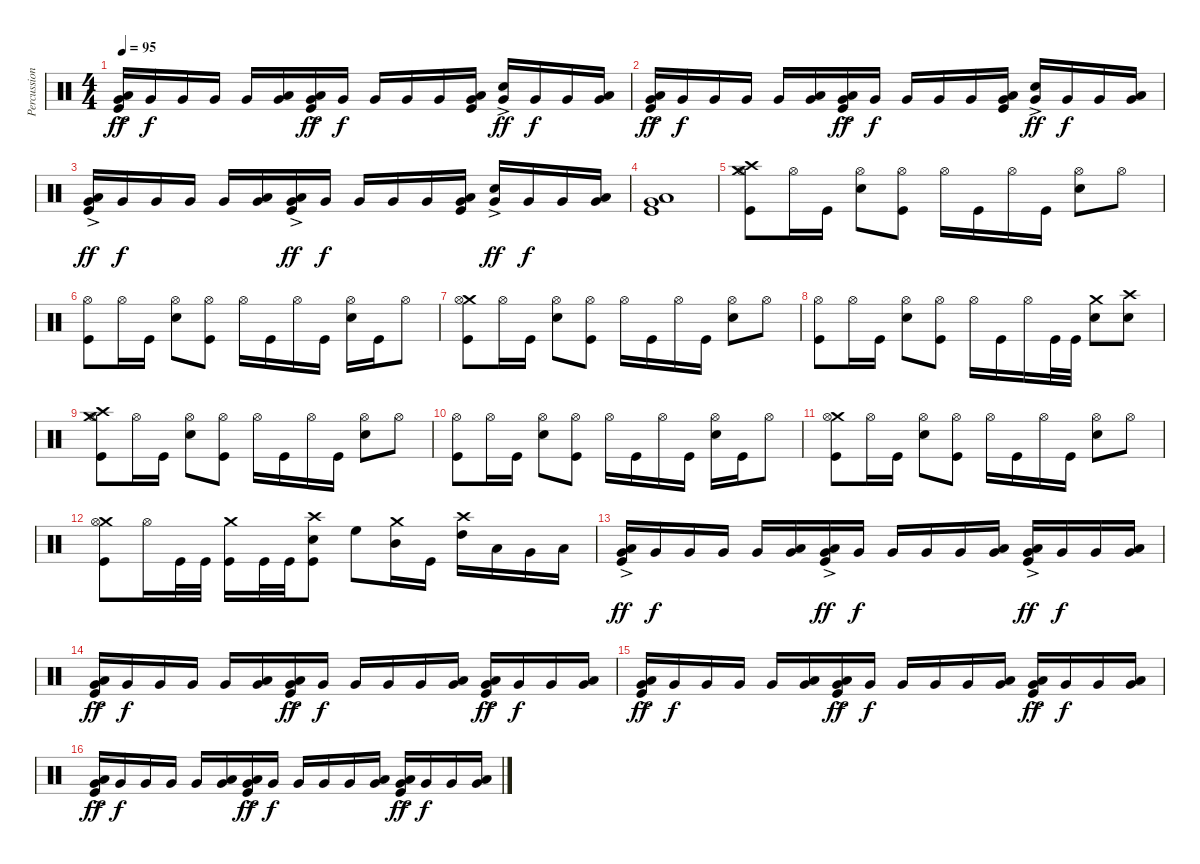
\track ("Percussion" "Percussion") {instrument percussion}
\staff {score}
\articulation defaults
\ts (4 4)
\tempo 95
\clef neutral
\ks c
("Low Floor Tom (hit)"{ac} "Very Low Tom (hit)" "Kick (hit)").16{dy ff} "Very Low Tom (hit)".16{dy f} "Very Low Tom (hit)".16 "Very Low Tom (hit)".16 "Very Low Tom (hit)".16 ("Low Floor Tom (hit)" "Very Low Tom (hit)").16 ("Low Floor Tom (hit)"{ac} "Very Low Tom (hit)" "Kick (hit)").16{dy ff} "Very Low Tom (hit)".16{dy f} "Very Low Tom (hit)".16 "Very Low Tom (hit)".16 "Very Low Tom (hit)".16 ("Low Floor Tom (hit)" "Very Low Tom (hit)" "Kick (hit)").16 ("Snare (hit) 2"{ac} "Very Low Tom (hit)").16{dy ff} "Very Low Tom (hit)".16{dy f} "Very Low Tom (hit)".16 ("Low Floor Tom (hit)" "Very Low Tom (hit)").16 |
("Low Floor Tom (hit)"{ac} "Very Low Tom (hit)" "Kick (hit)").16{dy ff} "Very Low Tom (hit)".16{dy f} "Very Low Tom (hit)".16 "Very Low Tom (hit)".16 "Very Low Tom (hit)".16 ("Low Floor Tom (hit)" "Very Low Tom (hit)").16 ("Low Floor Tom (hit)"{ac} "Very Low Tom (hit)" "Kick (hit)").16{dy ff} "Very Low Tom (hit)".16{dy f} "Very Low Tom (hit)".16 "Very Low Tom (hit)".16 "Very Low Tom (hit)".16 ("Low Floor Tom (hit)" "Very Low Tom (hit)" "Kick (hit)").16 ("Snare (hit) 2"{ac} "Very Low Tom (hit)").16{dy ff} "Very Low Tom (hit)".16{dy f} "Very Low Tom (hit)".16 ("Low Floor Tom (hit)" "Very Low Tom (hit)").16 |
("Low Floor Tom (hit)"{ac} "Very Low Tom (hit)" "Kick (hit)").16{dy ff} "Very Low Tom (hit)".16{dy f} "Very Low Tom (hit)".16 "Very Low Tom (hit)".16 "Very Low Tom (hit)".16 ("Low Floor Tom (hit)" "Very Low Tom (hit)").16 ("Low Floor Tom (hit)"{ac} "Very Low Tom (hit)" "Kick (hit)").16{dy ff} "Very Low Tom (hit)".16{dy f} "Very Low Tom (hit)".16 "Very Low Tom (hit)".16 "Very Low Tom (hit)".16 ("Low Floor Tom (hit)" "Very Low Tom (hit)" "Kick (hit)").16 ("Snare (hit) 2"{ac} "Very Low Tom (hit)").16{dy ff} "Very Low Tom (hit)".16{dy f} "Very Low Tom (hit)".16 ("Low Floor Tom (hit)" "Very Low Tom (hit)").16 |
("Low Floor Tom (hit)" "Very Low Tom (hit)" "Kick (hit)").1 |
("Crash high (hit)" "Crash medium (hit)" "Hi-Hat (open)" "Kick (hit)").8 "Hi-Hat (open)".16 "Kick (hit)".16 ("Hi-Hat (open)" "Snare (hit) 2").8 ("Hi-Hat (open)" "Kick (hit)").8 "Hi-Hat (open)".16 "Kick (hit)".16 "Hi-Hat (open)".16 "Kick (hit)".16 ("Hi-Hat (open)" "Snare (hit) 2").8 "Hi-Hat (open)".8 |
("Hi-Hat (open)" "Kick (hit)").8 "Hi-Hat (open)".16 "Kick (hit)".16 ("Hi-Hat (open)" "Snare (hit) 2").8 ("Hi-Hat (open)" "Kick (hit)").8 "Hi-Hat (open)".16 "Kick (hit)".16 "Hi-Hat (open)".16 "Kick (hit)".16 ("Hi-Hat (open)" "Snare (hit) 2").16 "Kick (hit)".16 "Hi-Hat (open)".8 |
("Crash medium (hit)" "Hi-Hat (open)" "Kick (hit)").8 "Hi-Hat (open)".16 "Kick (hit)".16 ("Hi-Hat (open)" "Snare (hit) 2").8 ("Hi-Hat (open)" "Kick (hit)").8 "Hi-Hat (open)".16 "Kick (hit)".16 "Hi-Hat (open)".16 "Kick (hit)".16 ("Hi-Hat (open)" "Snare (hit) 2").8 "Hi-Hat (open)".8 |
("Hi-Hat (open)" "Kick (hit)").8 "Hi-Hat (open)".16 "Kick (hit)".16 ("Hi-Hat (open)" "Snare (hit) 2").8 ("Hi-Hat (open)" "Kick (hit)").8 "Hi-Hat (open)".16 "Kick (hit)".16 "Hi-Hat (open)".16 "Kick (hit)".32 "Kick (hit)".32 ("Crash medium (hit)" "Snare (hit) 2").8 ("Crash high (hit)" "Snare (hit) 2").8 |
("Crash high (hit)" "Crash medium (hit)" "Hi-Hat (open)" "Kick (hit)").8 "Hi-Hat (open)".16 "Kick (hit)".16 ("Hi-Hat (open)" "Snare (hit) 2").8 ("Hi-Hat (open)" "Kick (hit)").8 "Hi-Hat (open)".16 "Kick (hit)".16 "Hi-Hat (open)".16 "Kick (hit)".16 ("Hi-Hat (open)" "Snare (hit) 2").8 "Hi-Hat (open)".8 |
("Hi-Hat (open)" "Kick (hit)").8 "Hi-Hat (open)".16 "Kick (hit)".16 ("Hi-Hat (open)" "Snare (hit) 2").8 ("Hi-Hat (open)" "Kick (hit)").8 "Hi-Hat (open)".16 "Kick (hit)".16 "Hi-Hat (open)".16 "Kick (hit)".16 ("Hi-Hat (open)" "Snare (hit) 2").16 "Kick (hit)".16 "Hi-Hat (open)".8 |
("Crash medium (hit)" "Hi-Hat (open)" "Kick (hit)").8 "Hi-Hat (open)".16 "Kick (hit)".16 ("Hi-Hat (open)" "Snare (hit) 2").8 ("Hi-Hat (open)" "Kick (hit)").8 "Hi-Hat (open)".16 "Kick (hit)".16 "Hi-Hat (open)".16 "Kick (hit)".16 ("Hi-Hat (open)" "Snare (hit) 2").8 "Hi-Hat (open)".8 |
("Crash medium (hit)" "Hi-Hat (open)" "Kick (hit)").8 "Hi-Hat (open)".16 "Kick (hit)".32 "Kick (hit)".32 ("Crash medium (hit)" "Kick (hit)").16 "Kick (hit)".32 "Kick (hit)".32 ("Crash high (hit)" "Snare (hit) 2" "Kick (hit)").8 "High Floor Tom (hit)".8 ("Crash medium (hit)" "Mid Tom (hit)").16 "Kick (hit)".16 ("Crash high (hit)" "High Tom (hit)").16 "Low Tom (hit)".16 "Very Low Tom (hit)".16 "Low Floor Tom (hit)".16 |
("Low Floor Tom (hit)"{ac} "Very Low Tom (hit)" "Kick (hit)").16{dy ff} "Very Low Tom (hit)".16{dy f} "Very Low Tom (hit)".16 "Very Low Tom (hit)".16 "Very Low Tom (hit)".16 ("Low Floor Tom (hit)" "Very Low Tom (hit)").16 ("Low Floor Tom (hit)"{ac} "Very Low Tom (hit)" "Kick (hit)").16{dy ff} "Very Low Tom (hit)".16{dy f} "Very Low Tom (hit)".16 "Very Low Tom (hit)".16 "Very Low Tom (hit)".16 ("Low Floor Tom (hit)" "Very Low Tom (hit)").16 ("Low Floor Tom (hit)"{ac} "Very Low Tom (hit)" "Kick (hit)").16{dy ff} "Very Low Tom (hit)".16{dy f} "Very Low Tom (hit)".16 ("Low Floor Tom (hit)" "Very Low Tom (hit)").16 |
("Low Floor Tom (hit)"{ac} "Very Low Tom (hit)" "Kick (hit)").16{dy ff} "Very Low Tom (hit)".16{dy f} "Very Low Tom (hit)".16 "Very Low Tom (hit)".16 "Very Low Tom (hit)".16 ("Low Floor Tom (hit)" "Very Low Tom (hit)").16 ("Low Floor Tom (hit)"{ac} "Very Low Tom (hit)" "Kick (hit)").16{dy ff} "Very Low Tom (hit)".16{dy f} "Very Low Tom (hit)".16 "Very Low Tom (hit)".16 "Very Low Tom (hit)".16 ("Low Floor Tom (hit)" "Very Low Tom (hit)").16 ("Low Floor Tom (hit)"{ac} "Very Low Tom (hit)" "Kick (hit)").16{dy ff} "Very Low Tom (hit)".16{dy f} "Very Low Tom (hit)".16 ("Low Floor Tom (hit)" "Very Low Tom (hit)").16 |
("Low Floor Tom (hit)"{ac} "Very Low Tom (hit)" "Kick (hit)").16{dy ff} "Very Low Tom (hit)".16{dy f} "Very Low Tom (hit)".16 "Very Low Tom (hit)".16 "Very Low Tom (hit)".16 ("Low Floor Tom (hit)" "Very Low Tom (hit)").16 ("Low Floor Tom (hit)"{ac} "Very Low Tom (hit)" "Kick (hit)").16{dy ff} "Very Low Tom (hit)".16{dy f} "Very Low Tom (hit)".16 "Very Low Tom (hit)".16 "Very Low Tom (hit)".16 ("Low Floor Tom (hit)" "Very Low Tom (hit)").16 ("Low Floor Tom (hit)"{ac} "Very Low Tom (hit)" "Kick (hit)").16{dy ff} "Very Low Tom (hit)".16{dy f} "Very Low Tom (hit)".16 ("Low Floor Tom (hit)" "Very Low Tom (hit)").16 |
("Low Floor Tom (hit)"{ac} "Very Low Tom (hit)" "Kick (hit)").16{dy ff} "Very Low Tom (hit)".16{dy f} "Very Low Tom (hit)".16 "Very Low Tom (hit)".16 "Very Low Tom (hit)".16 ("Low Floor Tom (hit)" "Very Low Tom (hit)").16 ("Low Floor Tom (hit)"{ac} "Very Low Tom (hit)" "Kick (hit)").16{dy ff} "Very Low Tom (hit)".16{dy f} "Very Low Tom (hit)".16 "Very Low Tom (hit)".16 "Very Low Tom (hit)".16 ("Low Floor Tom (hit)" "Very Low Tom (hit)").16 ("Low Floor Tom (hit)"{ac} "Very Low Tom (hit)" "Kick (hit)").16{dy ff} "Very Low Tom (hit)".16{dy f} "Very Low Tom (hit)".16 ("Low Floor Tom (hit)" "Very Low Tom (hit)").16
